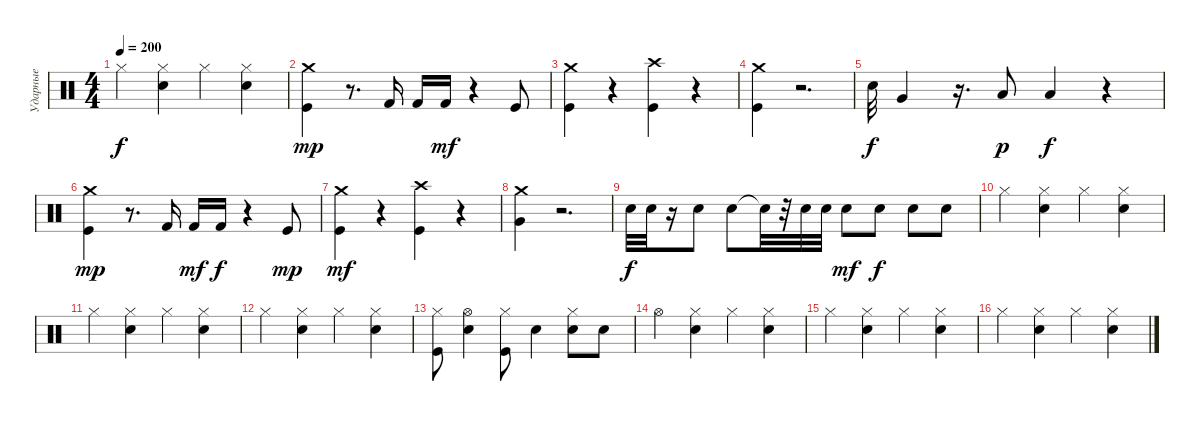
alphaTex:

\track ("Ударные" "Ударные") {instrument percussion}
\staff {score}
\articulation defaults
\ts (4 4)
\tempo 200
\clef neutral
\ks c "Hi-Hat (closed)".4{dy f}
("Snare (hit) 2" "Hi-Hat (closed)").4 "Hi-Hat (closed)".4 ("Snare (hit) 2" "Hi-Hat (closed)").4 |
("Crash medium (hit)" "Kick (hit)").4{dy mp} r.8{d} "Kick (hit) 2".16 "Kick (hit) 2".16 "Kick (hit) 2".16{dy mf} r.4 "Kick (hit)".8 |
("Kick (hit)" "Crash medium (hit)").4 r.4 ("Crash high (hit)" "Kick (hit)").4 r.4 |
("Crash medium (hit)" "Kick (hit)").4 r.2{d} |
"Snare (hit) 2".32{dy f} "Very Low Tom (hit)".4 r.16{d} "Low Tom (hit)".8{dy p} "Low Floor Tom (hit)".4{dy f} r.4 |
("Crash medium (hit)" "Kick (hit)").4{dy mp} r.8{d} "Kick (hit) 2".16 "Kick (hit) 2".16{dy mf} "Kick (hit) 2".16{dy f} r.4 "Kick (hit)".8{dy mp} |
("Kick (hit)" "Crash medium (hit)").4{dy mf} r.4 ("Crash high (hit)" "Kick (hit)").4 r.4 |
("Crash medium (hit)" "Very Low Tom (hit)").4 r.2{d} |
"Electric Snare (hit)".32{dy f} "Electric Snare (hit)".32 r.16 "Electric Snare (hit)".8 "Electric Snare (hit)".8 "Snare (hit)"{t}.32 r.32 "Electric Snare (hit)".32 "Electric Snare (hit)".32 "Electric Snare (hit)".8{dy mf} "Electric Snare (hit)".8{dy f} "Electric Snare (hit)".8 "Electric Snare (hit)".8 |
"Hi-Hat (closed)".4 ("Snare (hit) 2" "Hi-Hat (closed)").4 "Hi-Hat (closed)".4 ("Snare (hit) 2" "Hi-Hat (closed)").4 |
"Hi-Hat (closed)".4 ("Snare (hit) 2" "Hi-Hat (closed)").4 "Hi-Hat (closed)".4 ("Snare (hit) 2" "Hi-Hat (closed)").4 |
"Hi-Hat (closed)".4 ("Snare (hit) 2" "Hi-Hat (closed)").4 "Hi-Hat (closed)".4 ("Snare (hit) 2" "Hi-Hat (closed)").4 |
("Kick (hit)" "Hi-Hat (closed)").8 ("Hi-Hat (open)" "Electric Snare (hit)").4 ("Kick (hit)" "Hi-Hat (closed)").8 "Electric Snare (hit)".4 ("Electric Snare (hit)" "Hi-Hat (closed)").8 "Electric Snare (hit)".8 |
"Hi-Hat (open)".4 ("Snare (hit) 2" "Hi-Hat (closed)").4 "Hi-Hat (closed)".4 ("Snare (hit) 2" "Hi-Hat (closed)").4 |
"Hi-Hat (closed)".4 ("Snare (hit) 2" "Hi-Hat (closed)").4 "Hi-Hat (closed)".4 ("Snare (hit) 2" "Hi-Hat (closed)").4 |
"Hi-Hat (closed)".4 ("Snare (hit) 2" "Hi-Hat (closed)").4 "Hi-Hat (closed)".4 ("Snare (hit) 2" "Hi-Hat (closed)").4
